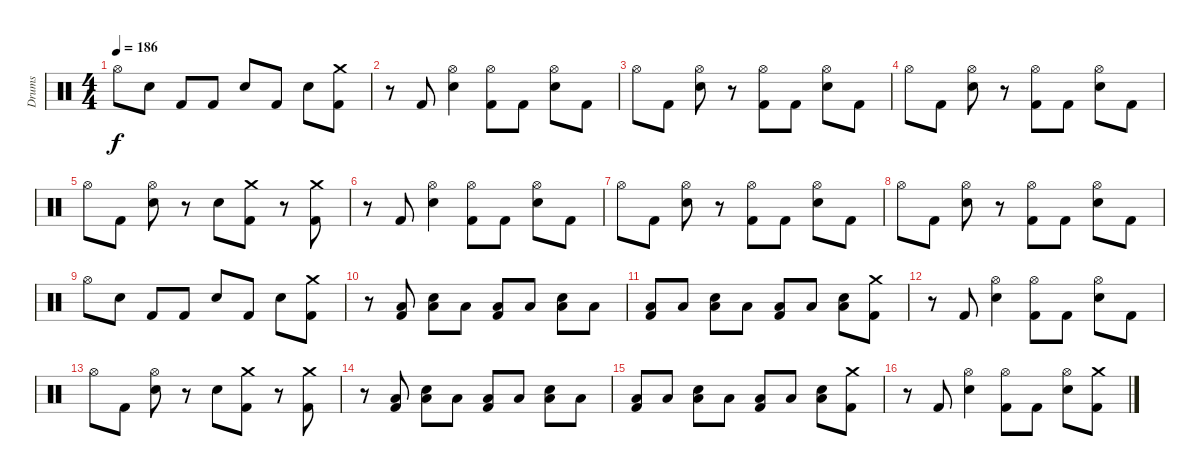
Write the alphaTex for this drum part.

\track ("Drums" "Drums") {instrument percussion}
\staff
\articulation defaults
\ts (4 4)
\tempo 186
\clef neutral
\ks c "Hi-Hat (open)".8{dy f} "Electric Snare (hit)".8 "Kick (hit) 2".8 "Kick (hit) 2".8 "Electric Snare (hit)".8 "Kick (hit) 2".8 "Electric Snare (hit)".8
("Crash medium (hit)" "Kick (hit) 2").8 |
r.8 "Kick (hit) 2".8 ("Hi-Hat (open)" "Electric Snare (hit)").4 ("Hi-Hat (open)" "Kick (hit) 2").8 "Kick (hit) 2".8 ("Hi-Hat (open)" "Electric Snare (hit)").8 "Kick (hit) 2".8 |
"Hi-Hat (open)".8 "Kick (hit) 2".8 ("Hi-Hat (open)" "Electric Snare (hit)").8 r.8 ("Hi-Hat (open)" "Kick (hit) 2").8 "Kick (hit) 2".8 ("Hi-Hat (open)" "Electric Snare (hit)").8 "Kick (hit) 2".8 |
"Hi-Hat (open)".8 "Kick (hit) 2".8 ("Hi-Hat (open)" "Electric Snare (hit)").8 r.8 ("Hi-Hat (open)" "Kick (hit) 2").8 "Kick (hit) 2".8 ("Hi-Hat (open)" "Electric Snare (hit)").8 "Kick (hit) 2".8 |
"Hi-Hat (open)".8 "Kick (hit) 2".8 ("Hi-Hat (open)" "Electric Snare (hit)").8 r.8 "Electric Snare (hit)".8 ("Crash medium (hit)" "Kick (hit) 2").8 r.8 ("Crash medium (hit)" "Kick (hit) 2").8 |
r.8 "Kick (hit) 2".8 ("Hi-Hat (open)" "Electric Snare (hit)").4 ("Hi-Hat (open)" "Kick (hit) 2").8 "Kick (hit) 2".8 ("Hi-Hat (open)" "Electric Snare (hit)").8 "Kick (hit) 2".8 |
"Hi-Hat (open)".8 "Kick (hit) 2".8 ("Hi-Hat (open)" "Electric Snare (hit)").8 r.8 ("Hi-Hat (open)" "Kick (hit) 2").8 "Kick (hit) 2".8 ("Hi-Hat (open)" "Electric Snare (hit)").8 "Kick (hit) 2".8 |
"Hi-Hat (open)".8 "Kick (hit) 2".8 ("Hi-Hat (open)" "Electric Snare (hit)").8 r.8 ("Hi-Hat (open)" "Kick (hit) 2").8 "Kick (hit) 2".8 ("Hi-Hat (open)" "Electric Snare (hit)").8 "Kick (hit) 2".8 |
"Hi-Hat (open)".8 "Electric Snare (hit)".8 "Kick (hit) 2".8 "Kick (hit) 2".8 "Electric Snare (hit)".8 "Kick (hit) 2".8 "Electric Snare (hit)".8 ("Crash medium (hit)" "Kick (hit) 2").8 |
r.8 ("Low Floor Tom (hit)" "Kick (hit) 2").8 ("Low Floor Tom (hit)" "Electric Snare (hit)").8 "Low Floor Tom (hit)".8 ("Low Floor Tom (hit)" "Kick (hit) 2").8 "Low Floor Tom (hit)".8 ("Low Floor Tom (hit)" "Electric Snare (hit)").8 "Low Floor Tom (hit)".8 |
("Low Floor Tom (hit)" "Kick (hit) 2").8 "Low Floor Tom (hit)".8 ("Low Floor Tom (hit)" "Electric Snare (hit)").8 "Low Floor Tom (hit)".8 ("Low Floor Tom (hit)" "Kick (hit) 2").8 "Low Floor Tom (hit)".8 ("Low Floor Tom (hit)" "Electric Snare (hit)").8 ("Crash medium (hit)" "Kick (hit) 2").8 |
r.8 "Kick (hit) 2".8 ("Hi-Hat (open)" "Electric Snare (hit)").4 ("Hi-Hat (open)" "Kick (hit) 2").8 "Kick (hit) 2".8 ("Hi-Hat (open)" "Electric Snare (hit)").8 "Kick (hit) 2".8 |
"Hi-Hat (open)".8 "Kick (hit) 2".8 ("Hi-Hat (open)" "Electric Snare (hit)").8 r.8 "Electric Snare (hit)".8 ("Crash medium (hit)" "Kick (hit) 2").8 r.8 ("Crash medium (hit)" "Kick (hit) 2").8 |
r.8 ("Low Floor Tom (hit)" "Kick (hit) 2").8 ("Low Floor Tom (hit)" "Electric Snare (hit)").8 "Low Floor Tom (hit)".8 ("Low Floor Tom (hit)" "Kick (hit) 2").8 "Low Floor Tom (hit)".8 ("Low Floor Tom (hit)" "Electric Snare (hit)").8 "Low Floor Tom (hit)".8 |
("Low Floor Tom (hit)" "Kick (hit) 2").8 "Low Floor Tom (hit)".8 ("Low Floor Tom (hit)" "Electric Snare (hit)").8 "Low Floor Tom (hit)".8 ("Low Floor Tom (hit)" "Kick (hit) 2").8 "Low Floor Tom (hit)".8 ("Low Floor Tom (hit)" "Electric Snare (hit)").8 ("Crash medium (hit)" "Kick (hit) 2").8 |
r.8 "Kick (hit) 2".8 ("Hi-Hat (open)" "Electric Snare (hit)").4 ("Hi-Hat (open)" "Kick (hit) 2").8 "Kick (hit) 2".8 ("Hi-Hat (open)" "Electric Snare (hit)").8 ("Crash medium (hit)" "Kick (hit) 2").8
